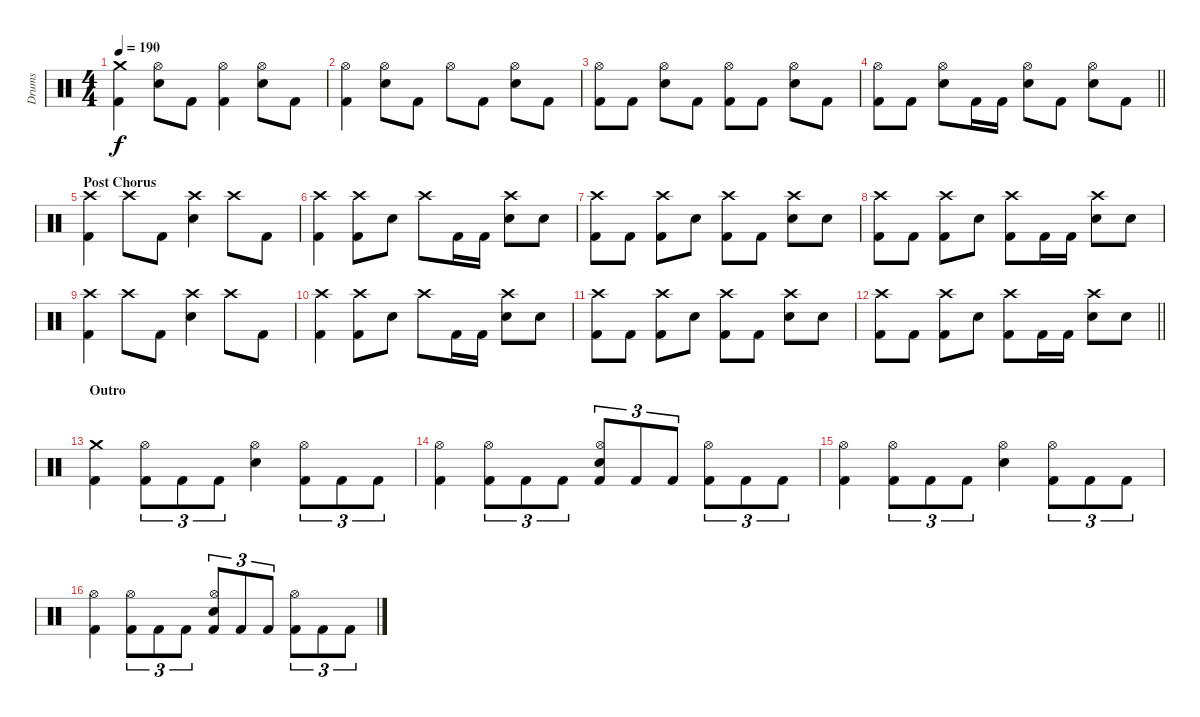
\track ("Drums" "Drums") {instrument percussion}
\staff {score}
\articulation defaults
\ts (4 4)
\tempo 190
\clef neutral
\ks c
("Crash medium (hit)" "Kick (hit) 2").4{dy f} ("Hi-Hat (open)" "Snare (hit) 2").8 "Kick (hit) 2".8 ("Hi-Hat (open)" "Kick (hit) 2").4 ("Hi-Hat (open)" "Snare (hit) 2").8 "Kick (hit) 2".8 |
("Hi-Hat (open)" "Kick (hit) 2").4 ("Hi-Hat (open)" "Snare (hit) 2").8 "Kick (hit) 2".8 "Hi-Hat (open)".8 "Kick (hit) 2".8 ("Hi-Hat (open)" "Snare (hit) 2").8 "Kick (hit) 2".8 |
("Hi-Hat (open)" "Kick (hit) 2").8 "Kick (hit) 2".8 ("Hi-Hat (open)" "Snare (hit) 2").8 "Kick (hit) 2".8 ("Hi-Hat (open)" "Kick (hit) 2").8 "Kick (hit) 2".8 ("Hi-Hat (open)" "Snare (hit) 2").8 "Kick (hit) 2".8 |
\barLineRight lightlight
("Hi-Hat (open)" "Kick (hit) 2").8 "Kick (hit) 2".8 ("Hi-Hat (open)" "Snare (hit) 2").8 "Kick (hit) 2".16 "Kick (hit) 2".16 ("Hi-Hat (open)" "Snare (hit) 2").8 "Kick (hit) 2".8 ("Hi-Hat (open)" "Snare (hit) 2").8 "Kick (hit) 2".8 |
\section ("" "Post Chorus")
("Crash high (hit)" "Kick (hit) 2").4 "Crash high (hit)".8 "Kick (hit) 2".8 ("Crash high (hit)" "Snare (hit) 2").4 "Crash high (hit)".8 "Kick (hit) 2".8 |
("Crash high (hit)" "Kick (hit) 2").4 ("Crash high (hit)" "Kick (hit) 2").8 "Snare (hit) 2".8 "Crash high (hit)".8 "Kick (hit) 2".16 "Kick (hit) 2".16 ("Crash high (hit)" "Snare (hit) 2").8 "Snare (hit) 2".8 |
("Crash high (hit)" "Kick (hit) 2").8 "Kick (hit) 2".8 ("Crash high (hit)" "Kick (hit) 2").8 "Snare (hit) 2".8 ("Crash high (hit)" "Kick (hit) 2").8 "Kick (hit) 2".8 ("Crash high (hit)" "Snare (hit) 2").8 "Snare (hit) 2".8 |
("Crash high (hit)" "Kick (hit) 2").8 "Kick (hit) 2".8 ("Crash high (hit)" "Kick (hit) 2").8 "Snare (hit) 2".8 ("Crash high (hit)" "Kick (hit) 2").8 "Kick (hit) 2".16 "Kick (hit) 2".16 ("Crash high (hit)" "Snare (hit) 2").8 "Snare (hit) 2".8 |
("Crash high (hit)" "Kick (hit) 2").4 "Crash high (hit)".8 "Kick (hit) 2".8 ("Crash high (hit)" "Snare (hit) 2").4 "Crash high (hit)".8 "Kick (hit) 2".8 |
("Crash high (hit)" "Kick (hit) 2").4 ("Crash high (hit)" "Kick (hit) 2").8 "Snare (hit) 2".8 "Crash high (hit)".8 "Kick (hit) 2".16 "Kick (hit) 2".16 ("Crash high (hit)" "Snare (hit) 2").8 "Snare (hit) 2".8 |
("Crash high (hit)" "Kick (hit) 2").8 "Kick (hit) 2".8 ("Crash high (hit)" "Kick (hit) 2").8 "Snare (hit) 2".8 ("Crash high (hit)" "Kick (hit) 2").8 "Kick (hit) 2".8 ("Crash high (hit)" "Snare (hit) 2").8 "Snare (hit) 2".8 |
\barLineRight lightlight
("Crash high (hit)" "Kick (hit) 2").8 "Kick (hit) 2".8 ("Crash high (hit)" "Kick (hit) 2").8 "Snare (hit) 2".8 ("Crash high (hit)" "Kick (hit) 2").8 "Kick (hit) 2".16 "Kick (hit) 2".16 ("Crash high (hit)" "Snare (hit) 2").8 "Snare (hit) 2".8 |
\section ("" "Outro")
("Crash medium (hit)" "Kick (hit) 2").4 ("Hi-Hat (open)" "Kick (hit) 2").8{tu (3 2)} "Kick (hit) 2".8{tu (3 2)} "Kick (hit) 2".8{tu (3 2)} ("Hi-Hat (open)" "Snare (hit) 2").4 ("Hi-Hat (open)" "Kick (hit) 2").8{tu (3 2)} "Kick (hit) 2".8{tu (3 2)} "Kick (hit) 2".8{tu (3 2)} |
("Hi-Hat (open)" "Kick (hit) 2").4 ("Hi-Hat (open)" "Kick (hit) 2").8{tu (3 2)} "Kick (hit) 2".8{tu (3 2)} "Kick (hit) 2".8{tu (3 2)} ("Hi-Hat (open)" "Snare (hit) 2" "Kick (hit) 2").8{tu (3 2)} "Kick (hit) 2".8{tu (3 2)} "Kick (hit) 2".8{tu (3 2)} ("Hi-Hat (open)" "Kick (hit) 2").8{tu (3 2)} "Kick (hit) 2".8{tu (3 2)} "Kick (hit) 2".8{tu (3 2)} |
("Hi-Hat (open)" "Kick (hit) 2").4 ("Hi-Hat (open)" "Kick (hit) 2").8{tu (3 2)} "Kick (hit) 2".8{tu (3 2)} "Kick (hit) 2".8{tu (3 2)} ("Hi-Hat (open)" "Snare (hit) 2").4 ("Hi-Hat (open)" "Kick (hit) 2").8{tu (3 2)} "Kick (hit) 2".8{tu (3 2)} "Kick (hit) 2".8{tu (3 2)} |
("Hi-Hat (open)" "Kick (hit) 2").4 ("Hi-Hat (open)" "Kick (hit) 2").8{tu (3 2)} "Kick (hit) 2".8{tu (3 2)} "Kick (hit) 2".8{tu (3 2)} ("Hi-Hat (open)" "Snare (hit) 2" "Kick (hit) 2").8{tu (3 2)} "Kick (hit) 2".8{tu (3 2)} "Kick (hit) 2".8{tu (3 2)} ("Hi-Hat (open)" "Kick (hit) 2").8{tu (3 2)} "Kick (hit) 2".8{tu (3 2)} "Kick (hit) 2".8{tu (3 2)}
